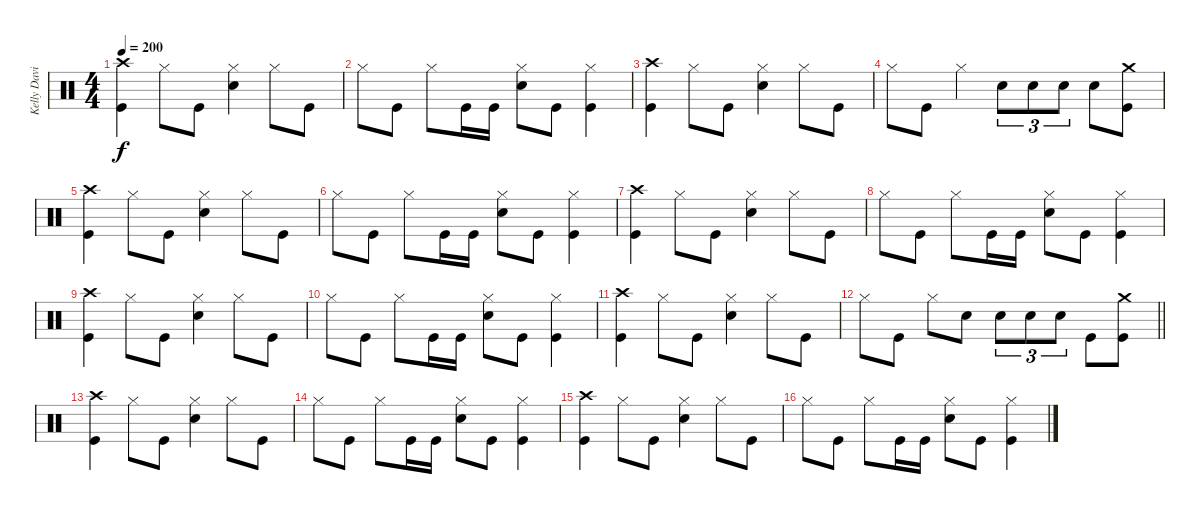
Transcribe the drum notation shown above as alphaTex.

\track ("Kelly David Smith" "Kelly Davi") {instrument percussion}
\staff {score}
\articulation defaults
\ts (4 4)
\tempo 200
\clef neutral
\ks c
("Crash high (hit)" "Kick (hit)").4{dy f} "Hi-Hat (closed)".8 "Kick (hit)".8 ("Hi-Hat (closed)" "Electric Snare (hit)").4 "Hi-Hat (closed)".8 "Kick (hit)".8 |
"Hi-Hat (closed)".8 "Kick (hit)".8 "Hi-Hat (closed)".8 "Kick (hit)".16 "Kick (hit)".16 ("Hi-Hat (closed)" "Electric Snare (hit)").8 "Kick (hit)".8 ("Hi-Hat (closed)" "Kick (hit)").4 |
("Crash high (hit)" "Kick (hit)").4 "Hi-Hat (closed)".8 "Kick (hit)".8 ("Hi-Hat (closed)" "Electric Snare (hit)").4 "Hi-Hat (closed)".8 "Kick (hit)".8 |
"Hi-Hat (closed)".8 "Kick (hit)".8 "Hi-Hat (closed)".4 "Electric Snare (hit)".8{tu (3 2)} "Electric Snare (hit)".8{tu (3 2)} "Electric Snare (hit)".8{tu (3 2)} "Electric Snare (hit)".8 ("Crash medium (hit)" "Kick (hit)").8 |
("Crash high (hit)" "Kick (hit)").4 "Hi-Hat (closed)".8 "Kick (hit)".8 ("Hi-Hat (closed)" "Electric Snare (hit)").4 "Hi-Hat (closed)".8 "Kick (hit)".8 |
"Hi-Hat (closed)".8 "Kick (hit)".8 "Hi-Hat (closed)".8 "Kick (hit)".16 "Kick (hit)".16 ("Hi-Hat (closed)" "Electric Snare (hit)").8 "Kick (hit)".8 ("Hi-Hat (closed)" "Kick (hit)").4 |
("Crash high (hit)" "Kick (hit)").4 "Hi-Hat (closed)".8 "Kick (hit)".8 ("Hi-Hat (closed)" "Electric Snare (hit)").4 "Hi-Hat (closed)".8 "Kick (hit)".8 |
"Hi-Hat (closed)".8 "Kick (hit)".8 "Hi-Hat (closed)".8 "Kick (hit)".16 "Kick (hit)".16 ("Hi-Hat (closed)" "Electric Snare (hit)").8 "Kick (hit)".8 ("Hi-Hat (closed)" "Kick (hit)").4 |
("Crash high (hit)" "Kick (hit)").4 "Hi-Hat (closed)".8 "Kick (hit)".8 ("Hi-Hat (closed)" "Electric Snare (hit)").4 "Hi-Hat (closed)".8 "Kick (hit)".8 |
"Hi-Hat (closed)".8 "Kick (hit)".8 "Hi-Hat (closed)".8 "Kick (hit)".16 "Kick (hit)".16 ("Hi-Hat (closed)" "Electric Snare (hit)").8 "Kick (hit)".8 ("Hi-Hat (closed)" "Kick (hit)").4 |
("Crash high (hit)" "Kick (hit)").4 "Hi-Hat (closed)".8 "Kick (hit)".8 ("Hi-Hat (closed)" "Electric Snare (hit)").4 "Hi-Hat (closed)".8 "Kick (hit)".8 |
\barLineRight lightlight "Hi-Hat (closed)".8 "Kick (hit)".8 "Hi-Hat (closed)".8 "Electric Snare (hit)".8 "Electric Snare (hit)".8{tu (3 2)} "Electric Snare (hit)".8{tu (3 2)} "Electric Snare (hit)".8{tu (3 2)} "Kick (hit)".8
("Crash medium (hit)" "Kick (hit)").8 |
("Crash high (hit)" "Kick (hit)").4 "Hi-Hat (closed)".8 "Kick (hit)".8 ("Hi-Hat (closed)" "Electric Snare (hit)").4 "Hi-Hat (closed)".8 "Kick (hit)".8 |
"Hi-Hat (closed)".8 "Kick (hit)".8 "Hi-Hat (closed)".8 "Kick (hit)".16 "Kick (hit)".16 ("Hi-Hat (closed)" "Electric Snare (hit)").8 "Kick (hit)".8 ("Hi-Hat (closed)" "Kick (hit)").4 |
("Crash high (hit)" "Kick (hit)").4 "Hi-Hat (closed)".8 "Kick (hit)".8 ("Hi-Hat (closed)" "Electric Snare (hit)").4 "Hi-Hat (closed)".8 "Kick (hit)".8 |
"Hi-Hat (closed)".8 "Kick (hit)".8 "Hi-Hat (closed)".8 "Kick (hit)".16 "Kick (hit)".16 ("Hi-Hat (closed)" "Electric Snare (hit)").8 "Kick (hit)".8 ("Hi-Hat (closed)" "Kick (hit)").4
